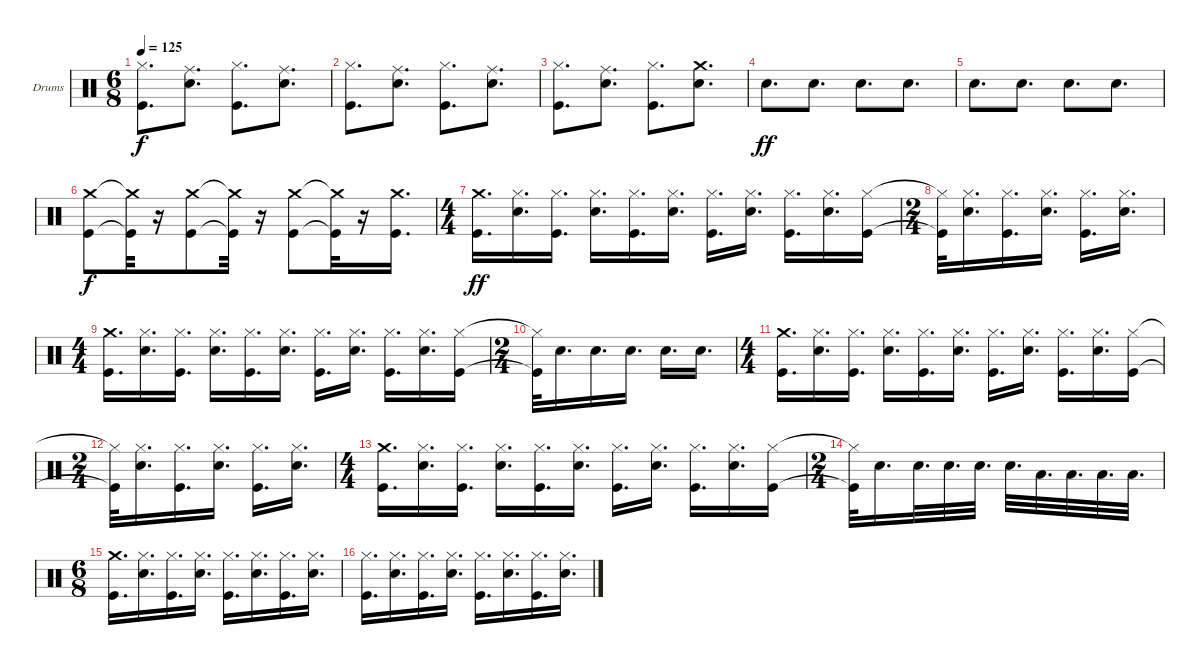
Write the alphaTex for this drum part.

\defaultSystemsLayout 4
\bracketExtendMode groupsimilarinstruments
\firstSystemTrackNameOrientation horizontal
\otherSystemsTrackNameOrientation horizontal
\track ("Drumkit" "Drums") {instrument percussion}
\staff {score}
\articulation defaults
\ts (6 8)
\tempo 125
\clef neutral
\ks c
("Kick (hit)" "Hi-Hat (closed)").8{d dy f} ("Snare (hit) 2" "Ride (middle)").8{d} ("Kick (hit)" "Hi-Hat (closed)").8{d} ("Snare (hit) 2" "Ride (middle)").8{d} |
("Kick (hit)" "Hi-Hat (closed)").8{d} ("Snare (hit) 2" "Ride (middle)").8{d} ("Kick (hit)" "Hi-Hat (closed)").8{d} ("Snare (hit) 2" "Ride (middle)").8{d} |
("Kick (hit)" "Hi-Hat (closed)").8{d} ("Snare (hit) 2" "Ride (middle)").8{d} ("Kick (hit)" "Hi-Hat (closed)").8{d} ("Snare (hit) 2" "Crash medium (hit)").8{d} |
"Snare (hit) 2".8{d dy ff} "Snare (hit) 2".8{d} "Snare (hit) 2".8{d} "Snare (hit) 2".8{d} |
"Snare (hit) 2".8{d} "Snare (hit) 2".8{d} "Snare (hit) 2".8{d} "Snare (hit) 2".8{d} |
("Kick (hit)" "Crash medium (hit)").8{dy f} ("Kick (hit)"{t} "Crash medium (hit)"{t}).32 r.16 ("Kick (hit)" "Crash medium (hit)").8 ("Kick (hit)"{t} "Crash medium (hit)"{t}).32 r.16 ("Kick (hit)" "Crash medium (hit)").8 ("Kick (hit)"{t} "Crash medium (hit)"{t}).32 r.16 ("Kick (hit)" "Crash medium (hit)").16{d} |
\ts (4 4)
("Kick (hit)" "Crash medium (hit)").16{d dy ff} ("Snare (hit) 2" "Hi-Hat (closed)").16{d} ("Kick (hit)" "Hi-Hat (closed)").16{d} ("Snare (hit) 2" "Hi-Hat (closed)").16{d} ("Kick (hit)" "Hi-Hat (closed)").16{d} ("Snare (hit) 2" "Hi-Hat (closed)").16{d} ("Kick (hit)" "Hi-Hat (closed)").16{d} ("Snare (hit) 2" "Hi-Hat (closed)").16{d} ("Kick (hit)" "Hi-Hat (closed)").16{d} ("Snare (hit) 2" "Hi-Hat (closed)").16{d} ("Kick (hit)" "Hi-Hat (closed)").16 |
\ts (2 4)
("Kick (hit)"{t} "Hi-Hat (closed)"{t}).32 ("Snare (hit) 2" "Hi-Hat (closed)").16{d} ("Kick (hit)" "Hi-Hat (closed)").16{d} ("Snare (hit) 2" "Hi-Hat (closed)").16{d} ("Kick (hit)" "Hi-Hat (closed)").16{d} ("Snare (hit) 2" "Hi-Hat (closed)").16{d} |
\ts (4 4)
("Kick (hit)" "Crash medium (hit)").16{d} ("Snare (hit) 2" "Hi-Hat (closed)").16{d} ("Kick (hit)" "Hi-Hat (closed)").16{d} ("Snare (hit) 2" "Hi-Hat (closed)").16{d} ("Kick (hit)" "Hi-Hat (closed)").16{d} ("Snare (hit) 2" "Hi-Hat (closed)").16{d} ("Kick (hit)" "Hi-Hat (closed)").16{d} ("Snare (hit) 2" "Hi-Hat (closed)").16{d} ("Kick (hit)" "Hi-Hat (closed)").16{d} ("Snare (hit) 2" "Hi-Hat (closed)").16{d} ("Kick (hit)" "Hi-Hat (closed)").16 |
\ts (2 4)
("Kick (hit)"{t} "Hi-Hat (closed)"{t}).32 "Snare (hit) 2".16{d} "Snare (hit) 2".16{d} "Snare (hit) 2".16{d} "Snare (hit) 2".16{d} "Snare (hit) 2".16{d} |
\ts (4 4)
("Kick (hit)" "Crash medium (hit)").16{d} ("Snare (hit) 2" "Hi-Hat (closed)").16{d} ("Kick (hit)" "Hi-Hat (closed)").16{d} ("Snare (hit) 2" "Hi-Hat (closed)").16{d} ("Kick (hit)" "Hi-Hat (closed)").16{d} ("Snare (hit) 2" "Hi-Hat (closed)").16{d} ("Kick (hit)" "Hi-Hat (closed)").16{d} ("Snare (hit) 2" "Hi-Hat (closed)").16{d} ("Kick (hit)" "Hi-Hat (closed)").16{d} ("Snare (hit) 2" "Hi-Hat (closed)").16{d} ("Kick (hit)" "Hi-Hat (closed)").16 |
\ts (2 4)
("Kick (hit)"{t} "Hi-Hat (closed)"{t}).32 ("Snare (hit) 2" "Hi-Hat (closed)").16{d} ("Kick (hit)" "Hi-Hat (closed)").16{d} ("Snare (hit) 2" "Hi-Hat (closed)").16{d} ("Kick (hit)" "Hi-Hat (closed)").16{d} ("Snare (hit) 2" "Hi-Hat (closed)").16{d} |
\ts (4 4)
("Kick (hit)" "Crash medium (hit)").16{d} ("Snare (hit) 2" "Hi-Hat (closed)").16{d} ("Kick (hit)" "Hi-Hat (closed)").16{d} ("Snare (hit) 2" "Hi-Hat (closed)").16{d} ("Kick (hit)" "Hi-Hat (closed)").16{d} ("Snare (hit) 2" "Hi-Hat (closed)").16{d} ("Kick (hit)" "Hi-Hat (closed)").16{d} ("Snare (hit) 2" "Hi-Hat (closed)").16{d} ("Kick (hit)" "Hi-Hat (closed)").16{d} ("Snare (hit) 2" "Hi-Hat (closed)").16{d} ("Kick (hit)" "Hi-Hat (closed)").16 |
\ts (2 4)
("Kick (hit)"{t} "Hi-Hat (closed)"{t}).32 "Snare (hit) 2".16{d} "Snare (hit) 2".32{d} "Snare (hit) 2".32{d} "Snare (hit) 2".32{d} "Snare (hit) 2".32{d} "Low Tom (hit)".32{d} "Low Tom (hit)".32{d} "Low Tom (hit)".32{d} "Low Tom (hit)".32{d} |
\ts (6 8)
("Kick (hit)" "Crash medium (hit)").16{d} ("Snare (hit) 2" "Hi-Hat (closed)").16{d} ("Kick (hit)" "Hi-Hat (closed)").16{d} ("Snare (hit) 2" "Hi-Hat (closed)").16{d} ("Kick (hit)" "Hi-Hat (closed)").16{d} ("Snare (hit) 2" "Hi-Hat (closed)").16{d} ("Kick (hit)" "Hi-Hat (closed)").16{d} ("Snare (hit) 2" "Hi-Hat (closed)").16{d} |
("Kick (hit)" "Hi-Hat (closed)").16{d} ("Snare (hit) 2" "Hi-Hat (closed)").16{d} ("Kick (hit)" "Hi-Hat (closed)").16{d} ("Snare (hit) 2" "Hi-Hat (closed)").16{d} ("Kick (hit)" "Hi-Hat (closed)").16{d} ("Snare (hit) 2" "Hi-Hat (closed)").16{d} ("Kick (hit)" "Hi-Hat (closed)").16{d} ("Snare (hit) 2" "Hi-Hat (closed)").16{d}
